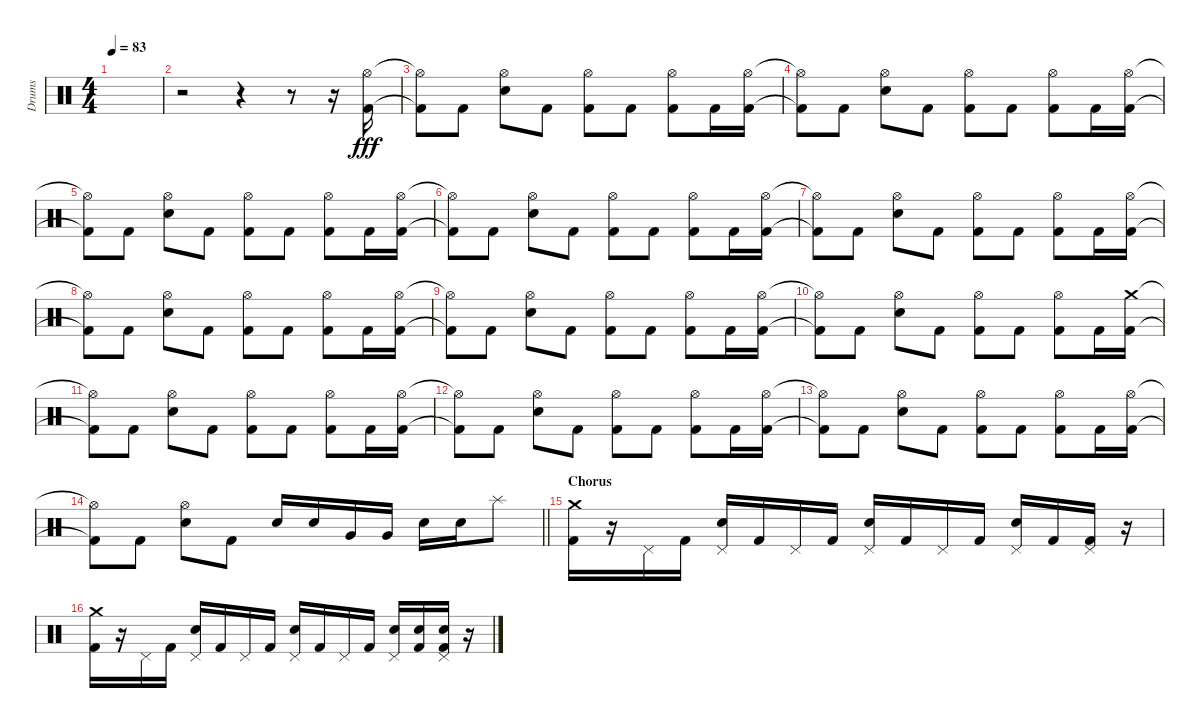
\track ("Drums" "Drums") {instrument percussion}
\staff {score}
\articulation defaults
\ts (4 4)
\tempo 83
\clef neutral
\ks c
|
r.2 r.4 r.8 r.16 ("Hi-Hat (open)" "Kick (hit) 2").16{dy fff} |
("Hi-Hat (open)"{t} "Kick (hit) 2"{t}).8 "Kick (hit) 2".8 ("Hi-Hat (open)" "Snare (hit) 2").8 "Kick (hit) 2".8 ("Hi-Hat (open)" "Kick (hit) 2").8 "Kick (hit) 2".8 ("Hi-Hat (open)" "Kick (hit) 2").8 "Kick (hit) 2".16 ("Hi-Hat (open)" "Kick (hit) 2").16 |
("Hi-Hat (open)"{t} "Kick (hit) 2"{t}).8 "Kick (hit) 2".8 ("Hi-Hat (open)" "Snare (hit) 2").8 "Kick (hit) 2".8 ("Hi-Hat (open)" "Kick (hit) 2").8 "Kick (hit) 2".8 ("Hi-Hat (open)" "Kick (hit) 2").8 "Kick (hit) 2".16 ("Hi-Hat (open)" "Kick (hit) 2").16 |
("Hi-Hat (open)"{t} "Kick (hit) 2"{t}).8 "Kick (hit) 2".8 ("Hi-Hat (open)" "Snare (hit) 2").8 "Kick (hit) 2".8 ("Hi-Hat (open)" "Kick (hit) 2").8 "Kick (hit) 2".8 ("Hi-Hat (open)" "Kick (hit) 2").8 "Kick (hit) 2".16 ("Hi-Hat (open)" "Kick (hit) 2").16 |
("Hi-Hat (open)"{t} "Kick (hit) 2"{t}).8 "Kick (hit) 2".8 ("Hi-Hat (open)" "Snare (hit) 2").8 "Kick (hit) 2".8 ("Hi-Hat (open)" "Kick (hit) 2").8 "Kick (hit) 2".8 ("Hi-Hat (open)" "Kick (hit) 2").8 "Kick (hit) 2".16 ("Hi-Hat (open)" "Kick (hit) 2").16 |
("Hi-Hat (open)"{t} "Kick (hit) 2"{t}).8 "Kick (hit) 2".8 ("Hi-Hat (open)" "Snare (hit) 2").8 "Kick (hit) 2".8 ("Hi-Hat (open)" "Kick (hit) 2").8 "Kick (hit) 2".8 ("Hi-Hat (open)" "Kick (hit) 2").8 "Kick (hit) 2".16 ("Hi-Hat (open)" "Kick (hit) 2").16 |
("Hi-Hat (open)"{t} "Kick (hit) 2"{t}).8 "Kick (hit) 2".8 ("Hi-Hat (open)" "Snare (hit) 2").8 "Kick (hit) 2".8 ("Hi-Hat (open)" "Kick (hit) 2").8 "Kick (hit) 2".8 ("Hi-Hat (open)" "Kick (hit) 2").8 "Kick (hit) 2".16 ("Hi-Hat (open)" "Kick (hit) 2").16 |
("Hi-Hat (open)"{t} "Kick (hit) 2"{t}).8 "Kick (hit) 2".8 ("Hi-Hat (open)" "Snare (hit) 2").8 "Kick (hit) 2".8 ("Hi-Hat (open)" "Kick (hit) 2").8 "Kick (hit) 2".8 ("Hi-Hat (open)" "Kick (hit) 2").8 "Kick (hit) 2".16 ("Hi-Hat (open)" "Kick (hit) 2").16 |
("Hi-Hat (open)"{t} "Kick (hit) 2"{t}).8 "Kick (hit) 2".8 ("Hi-Hat (open)" "Snare (hit) 2").8 "Kick (hit) 2".8 ("Hi-Hat (open)" "Kick (hit) 2").8 "Kick (hit) 2".8 ("Hi-Hat (open)" "Kick (hit) 2").8 "Kick (hit) 2".16 ("Crash medium (hit)" "Kick (hit) 2").16 |
("Hi-Hat (open)"{t} "Kick (hit) 2"{t}).8 "Kick (hit) 2".8 ("Hi-Hat (open)" "Snare (hit) 2").8 "Kick (hit) 2".8 ("Hi-Hat (open)" "Kick (hit) 2").8 "Kick (hit) 2".8 ("Hi-Hat (open)" "Kick (hit) 2").8 "Kick (hit) 2".16 ("Hi-Hat (open)" "Kick (hit) 2").16 |
("Hi-Hat (open)"{t} "Kick (hit) 2"{t}).8 "Kick (hit) 2".8 ("Hi-Hat (open)" "Snare (hit) 2").8 "Kick (hit) 2".8 ("Hi-Hat (open)" "Kick (hit) 2").8 "Kick (hit) 2".8 ("Hi-Hat (open)" "Kick (hit) 2").8 "Kick (hit) 2".16 ("Hi-Hat (open)" "Kick (hit) 2").16 |
("Hi-Hat (open)"{t} "Kick (hit) 2"{t}).8 "Kick (hit) 2".8 ("Hi-Hat (open)" "Snare (hit) 2").8 "Kick (hit) 2".8 ("Hi-Hat (open)" "Kick (hit) 2").8 "Kick (hit) 2".8 ("Hi-Hat (open)" "Kick (hit) 2").8 "Kick (hit) 2".16 ("Hi-Hat (open)" "Kick (hit) 2").16 |
\barLineRight lightlight
("Hi-Hat (open)"{t} "Kick (hit) 2"{t}).8 "Kick (hit) 2".8 ("Hi-Hat (open)" "Snare (hit) 2").8 "Kick (hit) 2".8 "Snare (hit) 2".16 "Snare (hit) 2".16 "Very Low Tom (hit)".16 "Very Low Tom (hit)".16 "Snare (hit) 2".16 "Snare (hit) 2".16 "Splash (hit)".8 |
\section ("" "Chorus")
("Crash medium (hit)" "Kick (hit) 2").16 r.16 "Pedal Hi-Hat (hit)".16 "Kick (hit) 2".16 ("Pedal Hi-Hat (hit)" "Snare (hit) 2").16 "Kick (hit) 2".16 "Pedal Hi-Hat (hit)".16 "Kick (hit) 2".16 ("Pedal Hi-Hat (hit)" "Snare (hit) 2").16 "Kick (hit) 2".16 "Pedal Hi-Hat (hit)".16 "Kick (hit) 2".16 ("Pedal Hi-Hat (hit)" "Snare (hit) 2").16 "Kick (hit) 2".16 ("Pedal Hi-Hat (hit)" "Kick (hit) 2").16 r.16 |
("Crash medium (hit)" "Kick (hit) 2").16 r.16 "Pedal Hi-Hat (hit)".16 "Kick (hit) 2".16 ("Pedal Hi-Hat (hit)" "Snare (hit) 2").16 "Kick (hit) 2".16 "Pedal Hi-Hat (hit)".16 "Kick (hit) 2".16 ("Pedal Hi-Hat (hit)" "Snare (hit) 2").16 "Kick (hit) 2".16 "Pedal Hi-Hat (hit)".16 "Kick (hit) 2".16 ("Pedal Hi-Hat (hit)" "Snare (hit) 2").16 ("Snare (hit) 2" "Kick (hit) 2").16 ("Pedal Hi-Hat (hit)" "Snare (hit) 2" "Kick (hit) 2").16 r.16
